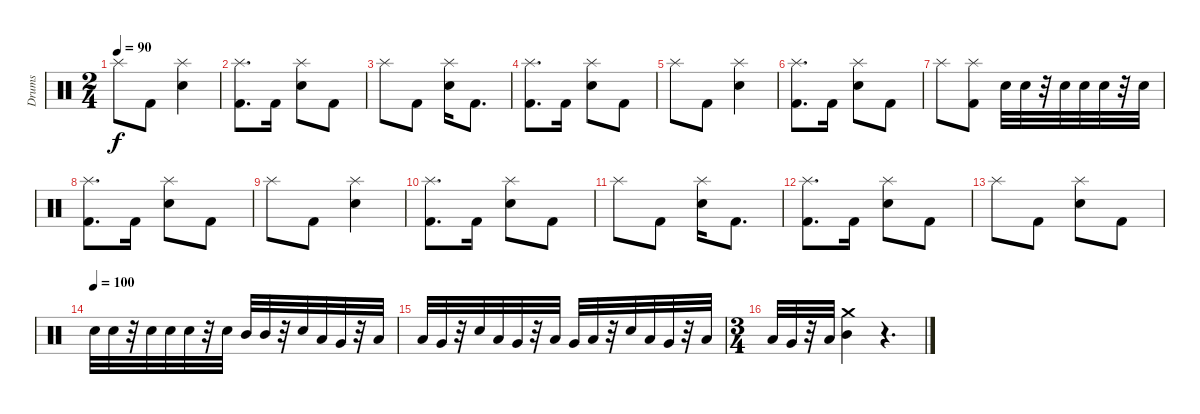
\track ("Drums" "Drums") {instrument percussion}
\staff {score}
\articulation defaults
\ts (2 4)
\tempo 90
\clef neutral
\ks c "Splash (hit)".8{dy f} "Kick (hit) 2".8
("Electric Snare (hit)" "Splash (hit)").4 |
("Splash (hit)" "Kick (hit) 2").8{d} "Kick (hit) 2".16 ("Electric Snare (hit)" "Splash (hit)").8 "Kick (hit) 2".8 |
"Splash (hit)".8 "Kick (hit) 2".8 ("Electric Snare (hit)" "Splash (hit)").16 "Kick (hit) 2".8{d} |
("Splash (hit)" "Kick (hit) 2").8{d} "Kick (hit) 2".16 ("Electric Snare (hit)" "Splash (hit)").8 "Kick (hit) 2".8 |
"Splash (hit)".8 "Kick (hit) 2".8 ("Electric Snare (hit)" "Splash (hit)").4 |
("Splash (hit)" "Kick (hit) 2").8{d} "Kick (hit) 2".16 ("Electric Snare (hit)" "Splash (hit)").8 "Kick (hit) 2".8 |
"Splash (hit)".8 ("Splash (hit)" "Kick (hit) 2").8 "Electric Snare (hit)".32 "Electric Snare (hit)".32 r.32 "Electric Snare (hit)".32 "Electric Snare (hit)".32 "Electric Snare (hit)".32 r.32 "Electric Snare (hit)".32 |
("Splash (hit)" "Kick (hit) 2").8{d} "Kick (hit) 2".16 ("Electric Snare (hit)" "Splash (hit)").8 "Kick (hit) 2".8 |
"Splash (hit)".8 "Kick (hit) 2".8 ("Electric Snare (hit)" "Splash (hit)").4 |
("Splash (hit)" "Kick (hit) 2").8{d} "Kick (hit) 2".16 ("Electric Snare (hit)" "Splash (hit)").8 "Kick (hit) 2".8 |
"Splash (hit)".8 "Kick (hit) 2".8 ("Electric Snare (hit)" "Splash (hit)").16 "Kick (hit) 2".8{d} |
("Splash (hit)" "Kick (hit) 2").8{d} "Kick (hit) 2".16 ("Electric Snare (hit)" "Splash (hit)").8 "Kick (hit) 2".8 |
"Splash (hit)".8 "Kick (hit) 2".8 ("Electric Snare (hit)" "Splash (hit)").8 "Kick (hit) 2".8 |
\tempo (100)
"Electric Snare (hit)".32 "Electric Snare (hit)".32 r.32 "Electric Snare (hit)".32 "Electric Snare (hit)".32 "Electric Snare (hit)".32 r.32 "Electric Snare (hit)".32 "Mid Tom (hit)".32 "Mid Tom (hit)".32 r.32 "Electric Snare (hit)".32 "Low Tom (hit)".32 "Very Low Tom (hit)".32 r.32 "Low Tom (hit)".32 |
"Low Tom (hit)".32 "Very Low Tom (hit)".32 r.32 "Electric Snare (hit)".32 "Low Tom (hit)".32 "Very Low Tom (hit)".32 r.32 "Low Tom (hit)".32 "Very Low Tom (hit)".32 "Low Tom (hit)".32 r.32 "Electric Snare (hit)".32 "Low Tom (hit)".32 "Very Low Tom (hit)".32 r.32 "Low Tom (hit)".32 |
\ts (3 4)
"Low Tom (hit)".32 "Very Low Tom (hit)".32 r.32 "Low Floor Tom (hit)".32 ("Crash medium (hit)" "Mid Tom (hit)").4 r.4{d}
